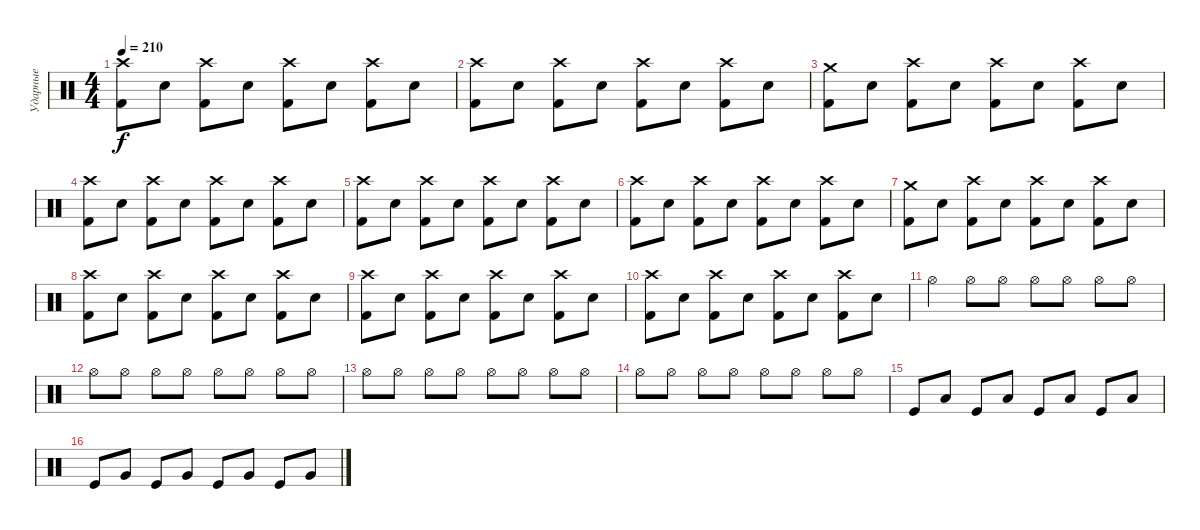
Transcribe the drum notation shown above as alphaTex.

\track ("Ударные" "Ударные") {instrument percussion}
\staff {score}
\articulation defaults
\ts (4 4)
\tempo 210
\clef neutral
\ks c
("Crash high (hit)" "Kick (hit) 2").8{dy f} "Snare (hit) 2".8 ("Crash high (hit)" "Kick (hit) 2").8 "Snare (hit) 2".8 ("Crash high (hit)" "Kick (hit) 2").8 "Snare (hit) 2".8 ("Crash high (hit)" "Kick (hit) 2").8 "Snare (hit) 2".8 |
("Crash high (hit)" "Kick (hit) 2").8 "Snare (hit) 2".8 ("Crash high (hit)" "Kick (hit) 2").8 "Snare (hit) 2".8 ("Crash high (hit)" "Kick (hit) 2").8 "Snare (hit) 2".8 ("Crash high (hit)" "Kick (hit) 2").8 "Snare (hit) 2".8 |
("Crash medium (hit)" "Kick (hit) 2").8 "Snare (hit) 2".8 ("Crash high (hit)" "Kick (hit) 2").8 "Snare (hit) 2".8 ("Crash high (hit)" "Kick (hit) 2").8 "Snare (hit) 2".8 ("Crash high (hit)" "Kick (hit) 2").8 "Snare (hit) 2".8 |
("Crash high (hit)" "Kick (hit) 2").8 "Snare (hit) 2".8 ("Crash high (hit)" "Kick (hit) 2").8 "Snare (hit) 2".8 ("Crash high (hit)" "Kick (hit) 2").8 "Snare (hit) 2".8 ("Crash high (hit)" "Kick (hit) 2").8 "Snare (hit) 2".8 |
("Crash high (hit)" "Kick (hit) 2").8 "Snare (hit) 2".8 ("Crash high (hit)" "Kick (hit) 2").8 "Snare (hit) 2".8 ("Crash high (hit)" "Kick (hit) 2").8 "Snare (hit) 2".8 ("Crash high (hit)" "Kick (hit) 2").8 "Snare (hit) 2".8 |
("Crash high (hit)" "Kick (hit) 2").8 "Snare (hit) 2".8 ("Crash high (hit)" "Kick (hit) 2").8 "Snare (hit) 2".8 ("Crash high (hit)" "Kick (hit) 2").8 "Snare (hit) 2".8 ("Crash high (hit)" "Kick (hit) 2").8 "Snare (hit) 2".8 |
("Crash medium (hit)" "Kick (hit) 2").8 "Snare (hit) 2".8 ("Crash high (hit)" "Kick (hit) 2").8 "Snare (hit) 2".8 ("Crash high (hit)" "Kick (hit) 2").8 "Snare (hit) 2".8 ("Crash high (hit)" "Kick (hit) 2").8 "Snare (hit) 2".8 |
("Crash high (hit)" "Kick (hit) 2").8 "Snare (hit) 2".8 ("Crash high (hit)" "Kick (hit) 2").8 "Snare (hit) 2".8 ("Crash high (hit)" "Kick (hit) 2").8 "Snare (hit) 2".8 ("Crash high (hit)" "Kick (hit) 2").8 "Snare (hit) 2".8 |
("Crash high (hit)" "Kick (hit) 2").8 "Snare (hit) 2".8 ("Crash high (hit)" "Kick (hit) 2").8 "Snare (hit) 2".8 ("Crash high (hit)" "Kick (hit) 2").8 "Snare (hit) 2".8 ("Crash high (hit)" "Kick (hit) 2").8 "Snare (hit) 2".8 |
("Crash high (hit)" "Kick (hit) 2").8 "Snare (hit) 2".8 ("Crash high (hit)" "Kick (hit) 2").8 "Snare (hit) 2".8 ("Crash high (hit)" "Kick (hit) 2").8 "Snare (hit) 2".8 ("Crash high (hit)" "Kick (hit) 2").8 "Snare (hit) 2".8 |
"Hi-Hat (open)".4 "Hi-Hat (open)".8 "Hi-Hat (open)".8 "Hi-Hat (open)".8 "Hi-Hat (open)".8 "Hi-Hat (open)".8 "Hi-Hat (open)".8 |
"Hi-Hat (open)".8 "Hi-Hat (open)".8 "Hi-Hat (open)".8 "Hi-Hat (open)".8 "Hi-Hat (open)".8 "Hi-Hat (open)".8 "Hi-Hat (open)".8 "Hi-Hat (open)".8 |
"Hi-Hat (open)".8 "Hi-Hat (open)".8 "Hi-Hat (open)".8 "Hi-Hat (open)".8 "Hi-Hat (open)".8 "Hi-Hat (open)".8 "Hi-Hat (open)".8 "Hi-Hat (open)".8 |
"Hi-Hat (open)".8 "Hi-Hat (open)".8 "Hi-Hat (open)".8 "Hi-Hat (open)".8 "Hi-Hat (open)".8 "Hi-Hat (open)".8 "Hi-Hat (open)".8 "Hi-Hat (open)".8 |
"Kick (hit)".8 "Low Tom (hit)".8 "Kick (hit)".8 "Low Tom (hit)".8 "Kick (hit)".8 "Low Tom (hit)".8 "Kick (hit)".8 "Low Tom (hit)".8 |
"Kick (hit)".8 "Very Low Tom (hit)".8 "Kick (hit)".8 "Very Low Tom (hit)".8 "Kick (hit)".8 "Very Low Tom (hit)".8 "Kick (hit)".8 "Very Low Tom (hit)".8
